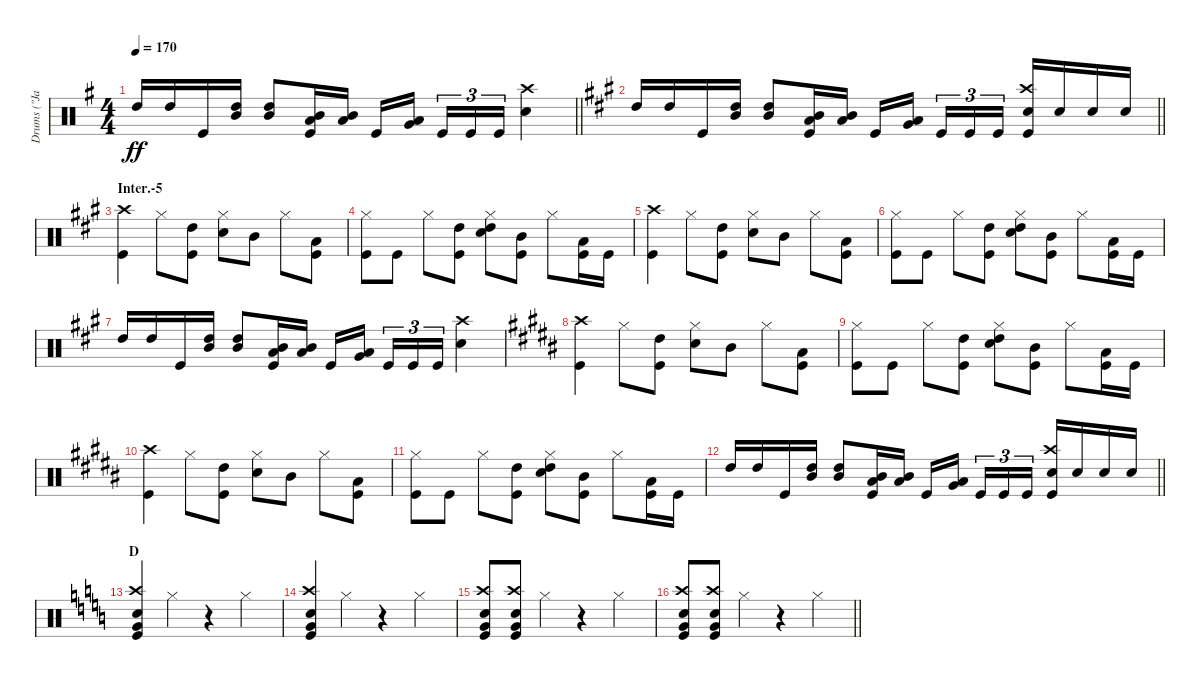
\track ("Drums (\"Jane\")" "Drums (\"Ja") {instrument percussion}
\staff {score}
\articulation defaults
\ts (4 4)
\tempo 170
\clef neutral
\barLineRight lightlight
\ks g "High Tom (hit)".16{dy ff} "High Tom (hit)".16 "Kick (hit)".16
("High Tom (hit)" "Mid Tom (hit)").16 ("High Tom (hit)" "Mid Tom (hit)").8 ("Low Tom (hit)" "Mid Tom (hit)" "Kick (hit)").16 ("Low Tom (hit)" "Mid Tom (hit)").16 "Kick (hit)".16 ("Low Tom (hit)" "Very Low Tom (hit)").16{beam splitsecondary} "Kick (hit)".16{tu (3 2)} "Kick (hit)".16{tu (3 2)} "Kick (hit)".16{tu (3 2)} ("Crash high (hit)" "Snare (hit) 2").4 |
\barLineRight lightlight
\ks a "High Tom (hit)".16 "High Tom (hit)".16 "Kick (hit)".16
("High Tom (hit)" "Mid Tom (hit)").16 ("High Tom (hit)" "Mid Tom (hit)").8 ("Low Tom (hit)" "Mid Tom (hit)" "Kick (hit)").16 ("Low Tom (hit)" "Mid Tom (hit)").16 "Kick (hit)".16 ("Low Tom (hit)" "Very Low Tom (hit)").16{beam splitsecondary} "Kick (hit)".16{tu (3 2)} "Kick (hit)".16{tu (3 2)} "Kick (hit)".16{tu (3 2)} ("Crash high (hit)" "Snare (hit) 2" "Kick (hit)").16 "Snare (hit) 2".16 "Snare (hit) 2".16 "Snare (hit) 2".16 |
\section ("" "Inter.-5")
("Crash high (hit)" "Kick (hit)").4 "Hi-Hat (closed)".8 ("High Tom (hit)" "Kick (hit)").8 ("Hi-Hat (closed)" "Snare (hit) 2").8 "Mid Tom (hit)".8 "Hi-Hat (closed)".8 ("Low Tom (hit)" "Kick (hit)").8 |
("Hi-Hat (closed)" "Kick (hit)").8 "Kick (hit)".8 "Hi-Hat (closed)".8 ("High Tom (hit)" "Kick (hit)").8 ("Hi-Hat (closed)" "Snare (hit) 2" "High Tom (hit)").8 ("Mid Tom (hit)" "Kick (hit)").8 "Hi-Hat (closed)".8 ("Low Tom (hit)" "Kick (hit)").16 "Kick (hit)".16 |
("Crash high (hit)" "Kick (hit)").4 "Hi-Hat (closed)".8 ("High Tom (hit)" "Kick (hit)").8 ("Hi-Hat (closed)" "Snare (hit) 2").8 "Mid Tom (hit)".8 "Hi-Hat (closed)".8 ("Low Tom (hit)" "Kick (hit)").8 |
("Hi-Hat (closed)" "Kick (hit)").8 "Kick (hit)".8 "Hi-Hat (closed)".8 ("High Tom (hit)" "Kick (hit)").8 ("Hi-Hat (closed)" "Snare (hit) 2" "High Tom (hit)").8 ("Mid Tom (hit)" "Kick (hit)").8 "Hi-Hat (closed)".8 ("Low Tom (hit)" "Kick (hit)").16 "Kick (hit)".16 |
"High Tom (hit)".16 "High Tom (hit)".16 "Kick (hit)".16 ("High Tom (hit)" "Mid Tom (hit)").16 ("High Tom (hit)" "Mid Tom (hit)").8 ("Low Tom (hit)" "Mid Tom (hit)" "Kick (hit)").16 ("Low Tom (hit)" "Mid Tom (hit)").16 "Kick (hit)".16 ("Low Tom (hit)" "Very Low Tom (hit)").16{beam splitsecondary} "Kick (hit)".16{tu (3 2)} "Kick (hit)".16{tu (3 2)} "Kick (hit)".16{tu (3 2)} ("Crash high (hit)" "Snare (hit) 2").4 |
\ks b
("Crash high (hit)" "Kick (hit)").4 "Hi-Hat (closed)".8 ("High Tom (hit)" "Kick (hit)").8 ("Hi-Hat (closed)" "Snare (hit) 2").8 "Mid Tom (hit)".8 "Hi-Hat (closed)".8 ("Low Tom (hit)" "Kick (hit)").8 |
("Hi-Hat (closed)" "Kick (hit)").8 "Kick (hit)".8 "Hi-Hat (closed)".8 ("High Tom (hit)" "Kick (hit)").8 ("Hi-Hat (closed)" "Snare (hit) 2" "High Tom (hit)").8 ("Mid Tom (hit)" "Kick (hit)").8 "Hi-Hat (closed)".8 ("Low Tom (hit)" "Kick (hit)").16 "Kick (hit)".16 |
("Crash high (hit)" "Kick (hit)").4 "Hi-Hat (closed)".8 ("High Tom (hit)" "Kick (hit)").8 ("Hi-Hat (closed)" "Snare (hit) 2").8 "Mid Tom (hit)".8 "Hi-Hat (closed)".8 ("Low Tom (hit)" "Kick (hit)").8 |
("Hi-Hat (closed)" "Kick (hit)").8 "Kick (hit)".8 "Hi-Hat (closed)".8 ("High Tom (hit)" "Kick (hit)").8 ("Hi-Hat (closed)" "Snare (hit) 2" "High Tom (hit)").8 ("Mid Tom (hit)" "Kick (hit)").8 "Hi-Hat (closed)".8 ("Low Tom (hit)" "Kick (hit)").16 "Kick (hit)".16 |
\barLineRight lightlight "High Tom (hit)".16 "High Tom (hit)".16 "Kick (hit)".16
("High Tom (hit)" "Mid Tom (hit)").16 ("High Tom (hit)" "Mid Tom (hit)").8 ("Low Tom (hit)" "Mid Tom (hit)" "Kick (hit)").16 ("Low Tom (hit)" "Mid Tom (hit)").16 "Kick (hit)".16 ("Low Tom (hit)" "Very Low Tom (hit)").16{beam splitsecondary} "Kick (hit)".16{tu (3 2)} "Kick (hit)".16{tu (3 2)} "Kick (hit)".16{tu (3 2)} ("Crash high (hit)" "Snare (hit) 2" "Kick (hit)").16 "Snare (hit) 2".16 "Snare (hit) 2".16 "Snare (hit) 2".16 |
\section ("" "D")
\ks c
("Crash high (hit)" "Snare (hit) 2" "Very Low Tom (hit)" "Kick (hit)").4 "Hi-Hat (closed)".4 r.4 "Hi-Hat (closed)".4 |
("Crash high (hit)" "Snare (hit) 2" "Very Low Tom (hit)" "Kick (hit)").4 "Hi-Hat (closed)".4 r.4 "Hi-Hat (closed)".4 |
("Crash high (hit)" "Snare (hit) 2" "Very Low Tom (hit)" "Kick (hit)").8 ("Crash high (hit)" "Snare (hit) 2" "Very Low Tom (hit)" "Kick (hit)").8 "Hi-Hat (closed)".4 r.4 "Hi-Hat (closed)".4 |
\barLineRight lightlight
("Crash high (hit)" "Snare (hit) 2" "Very Low Tom (hit)" "Kick (hit)").8 ("Crash high (hit)" "Snare (hit) 2" "Very Low Tom (hit)" "Kick (hit)").8 "Hi-Hat (closed)".4 r.4 "Hi-Hat (closed)".4
